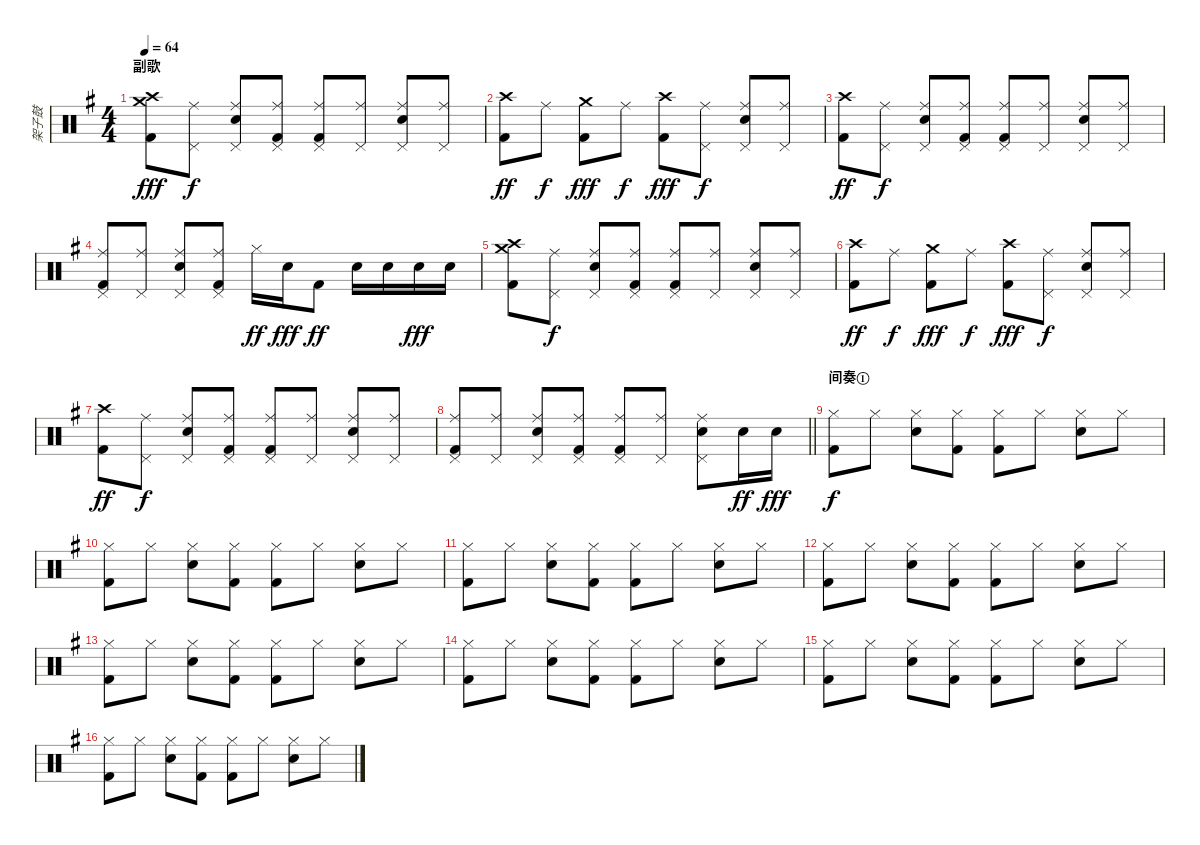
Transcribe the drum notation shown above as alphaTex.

\track ("架子鼓" "架子鼓") {instrument percussion}
\staff {score}
\articulation defaults
\ts (4 4)
\section ("" "副歌")
\tempo 64
\clef neutral
\ks g
("Crash high (hit)" "Crash medium (hit)" "Kick (hit) 2").8{dy fff} ("Ride (middle)" "Pedal Hi-Hat (hit)").8{dy f} ("Ride (middle)" "Electric Snare (hit)" "Pedal Hi-Hat (hit)").8 ("Ride (middle)" "Pedal Hi-Hat (hit)" "Kick (hit) 2").8 ("Ride (middle)" "Pedal Hi-Hat (hit)" "Kick (hit) 2").8 ("Ride (middle)" "Pedal Hi-Hat (hit)").8 ("Ride (middle)" "Electric Snare (hit)" "Pedal Hi-Hat (hit)").8 ("Ride (middle)" "Pedal Hi-Hat (hit)").8 |
("Crash high (hit)" "Kick (hit) 2").8{dy ff} "Ride (middle)".8{dy f} ("Crash medium (hit)" "Kick (hit) 2").8{dy fff} "Ride (middle)".8{dy f} ("Crash high (hit)" "Kick (hit) 2").8{dy fff} ("Ride (middle)" "Pedal Hi-Hat (hit)").8{dy f} ("Ride (middle)" "Electric Snare (hit)" "Pedal Hi-Hat (hit)").8 ("Ride (middle)" "Pedal Hi-Hat (hit)").8 |
("Crash high (hit)" "Kick (hit) 2").8{dy ff} ("Ride (middle)" "Pedal Hi-Hat (hit)").8{dy f} ("Ride (middle)" "Electric Snare (hit)" "Pedal Hi-Hat (hit)").8 ("Ride (middle)" "Pedal Hi-Hat (hit)" "Kick (hit) 2").8 ("Ride (middle)" "Pedal Hi-Hat (hit)" "Kick (hit) 2").8 ("Ride (middle)" "Pedal Hi-Hat (hit)").8 ("Ride (middle)" "Electric Snare (hit)" "Pedal Hi-Hat (hit)").8 ("Ride (middle)" "Pedal Hi-Hat (hit)").8 |
("Ride (middle)" "Pedal Hi-Hat (hit)" "Kick (hit) 2").8 ("Ride (middle)" "Pedal Hi-Hat (hit)").8 ("Ride (middle)" "Electric Snare (hit)" "Pedal Hi-Hat (hit)").8 ("Ride (middle)" "Pedal Hi-Hat (hit)" "Kick (hit) 2").8 "Hi-Hat (closed)".16{dy ff} "Electric Snare (hit)".16{dy fff} "Kick (hit) 2".8{dy ff} "Electric Snare (hit)".16 "Electric Snare (hit)".16 "Electric Snare (hit)".16{dy fff} "Electric Snare (hit)".16 |
("Crash high (hit)" "Crash medium (hit)" "Kick (hit) 2").8 ("Ride (middle)" "Pedal Hi-Hat (hit)").8{dy f} ("Ride (middle)" "Electric Snare (hit)" "Pedal Hi-Hat (hit)").8 ("Ride (middle)" "Pedal Hi-Hat (hit)" "Kick (hit) 2").8 ("Ride (middle)" "Pedal Hi-Hat (hit)" "Kick (hit) 2").8 ("Ride (middle)" "Pedal Hi-Hat (hit)").8 ("Ride (middle)" "Electric Snare (hit)" "Pedal Hi-Hat (hit)").8 ("Ride (middle)" "Pedal Hi-Hat (hit)").8 |
("Crash high (hit)" "Kick (hit) 2").8{dy ff} "Ride (middle)".8{dy f} ("Crash medium (hit)" "Kick (hit) 2").8{dy fff} "Ride (middle)".8{dy f} ("Crash high (hit)" "Kick (hit) 2").8{dy fff} ("Ride (middle)" "Pedal Hi-Hat (hit)").8{dy f} ("Ride (middle)" "Electric Snare (hit)" "Pedal Hi-Hat (hit)").8 ("Ride (middle)" "Pedal Hi-Hat (hit)").8 |
("Crash high (hit)" "Kick (hit) 2").8{dy ff} ("Ride (middle)" "Pedal Hi-Hat (hit)").8{dy f} ("Ride (middle)" "Electric Snare (hit)" "Pedal Hi-Hat (hit)").8 ("Ride (middle)" "Pedal Hi-Hat (hit)" "Kick (hit) 2").8 ("Ride (middle)" "Pedal Hi-Hat (hit)" "Kick (hit) 2").8 ("Ride (middle)" "Pedal Hi-Hat (hit)").8 ("Ride (middle)" "Electric Snare (hit)" "Pedal Hi-Hat (hit)").8 ("Ride (middle)" "Pedal Hi-Hat (hit)").8 |
\barLineRight lightlight
("Ride (middle)" "Pedal Hi-Hat (hit)" "Kick (hit) 2").8 ("Ride (middle)" "Pedal Hi-Hat (hit)").8 ("Ride (middle)" "Electric Snare (hit)" "Pedal Hi-Hat (hit)").8 ("Ride (middle)" "Pedal Hi-Hat (hit)" "Kick (hit) 2").8 ("Ride (middle)" "Pedal Hi-Hat (hit)" "Kick (hit) 2").8 ("Ride (middle)" "Pedal Hi-Hat (hit)").8 ("Ride (middle)" "Electric Snare (hit)" "Pedal Hi-Hat (hit)").8 "Electric Snare (hit)".16{dy ff} "Electric Snare (hit)".16{dy fff} |
\section ("" "间奏①")
("Hi-Hat (closed)" "Kick (hit) 2").8{dy f} "Hi-Hat (closed)".8 ("Hi-Hat (closed)" "Electric Snare (hit)").8 ("Hi-Hat (closed)" "Kick (hit) 2").8 ("Hi-Hat (closed)" "Kick (hit) 2").8 "Hi-Hat (closed)".8 ("Hi-Hat (closed)" "Electric Snare (hit)").8 "Hi-Hat (closed)".8 |
("Hi-Hat (closed)" "Kick (hit) 2").8 "Hi-Hat (closed)".8 ("Hi-Hat (closed)" "Electric Snare (hit)").8 ("Hi-Hat (closed)" "Kick (hit) 2").8 ("Hi-Hat (closed)" "Kick (hit) 2").8 "Hi-Hat (closed)".8 ("Hi-Hat (closed)" "Electric Snare (hit)").8 "Hi-Hat (closed)".8 |
("Hi-Hat (closed)" "Kick (hit) 2").8 "Hi-Hat (closed)".8 ("Hi-Hat (closed)" "Electric Snare (hit)").8 ("Hi-Hat (closed)" "Kick (hit) 2").8 ("Hi-Hat (closed)" "Kick (hit) 2").8 "Hi-Hat (closed)".8 ("Hi-Hat (closed)" "Electric Snare (hit)").8 "Hi-Hat (closed)".8 |
("Hi-Hat (closed)" "Kick (hit) 2").8 "Hi-Hat (closed)".8 ("Hi-Hat (closed)" "Electric Snare (hit)").8 ("Hi-Hat (closed)" "Kick (hit) 2").8 ("Hi-Hat (closed)" "Kick (hit) 2").8 "Hi-Hat (closed)".8 ("Hi-Hat (closed)" "Electric Snare (hit)").8 "Hi-Hat (closed)".8 |
("Hi-Hat (closed)" "Kick (hit) 2").8 "Hi-Hat (closed)".8 ("Hi-Hat (closed)" "Electric Snare (hit)").8 ("Hi-Hat (closed)" "Kick (hit) 2").8 ("Hi-Hat (closed)" "Kick (hit) 2").8 "Hi-Hat (closed)".8 ("Hi-Hat (closed)" "Electric Snare (hit)").8 "Hi-Hat (closed)".8 |
("Hi-Hat (closed)" "Kick (hit) 2").8 "Hi-Hat (closed)".8 ("Hi-Hat (closed)" "Electric Snare (hit)").8 ("Hi-Hat (closed)" "Kick (hit) 2").8 ("Hi-Hat (closed)" "Kick (hit) 2").8 "Hi-Hat (closed)".8 ("Hi-Hat (closed)" "Electric Snare (hit)").8 "Hi-Hat (closed)".8 |
("Hi-Hat (closed)" "Kick (hit) 2").8 "Hi-Hat (closed)".8 ("Hi-Hat (closed)" "Electric Snare (hit)").8 ("Hi-Hat (closed)" "Kick (hit) 2").8 ("Hi-Hat (closed)" "Kick (hit) 2").8 "Hi-Hat (closed)".8 ("Hi-Hat (closed)" "Electric Snare (hit)").8 "Hi-Hat (closed)".8 |
("Hi-Hat (closed)" "Kick (hit) 2").8 "Hi-Hat (closed)".8 ("Hi-Hat (closed)" "Electric Snare (hit)").8 ("Hi-Hat (closed)" "Kick (hit) 2").8 ("Hi-Hat (closed)" "Kick (hit) 2").8 "Hi-Hat (closed)".8 ("Hi-Hat (closed)" "Electric Snare (hit)").8 "Hi-Hat (closed)".8
